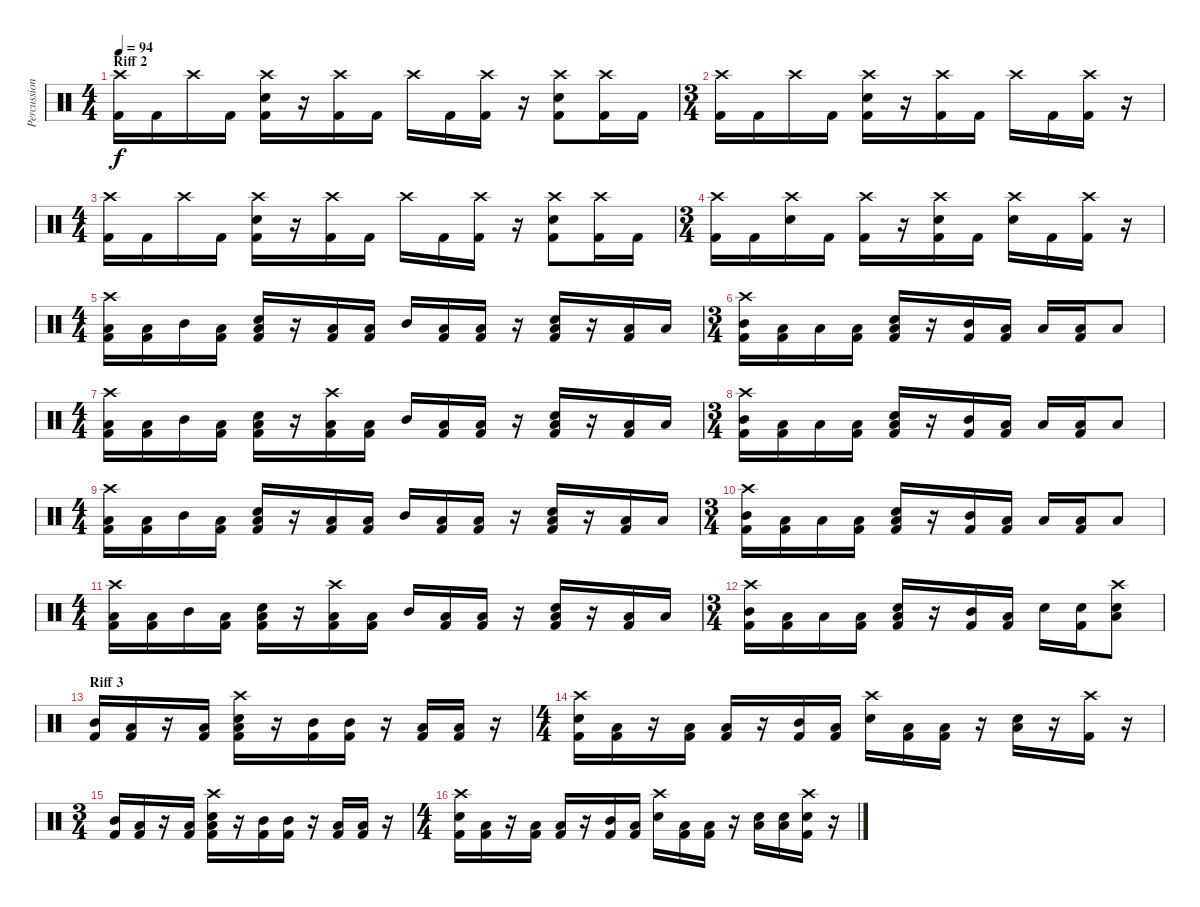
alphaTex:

\track ("Percussion" "Percussion") {instrument percussion}
\staff {score}
\articulation defaults
\ts (4 4)
\section ("" "Riff 2")
\tempo 94
\clef neutral
\ks c
("Crash high (hit)" "Kick (hit) 2").16{dy f} "Kick (hit) 2".16 "Crash high (hit)".16 "Kick (hit) 2".16 ("Crash high (hit)" "Electric Snare (hit)" "Kick (hit) 2").16 r.16 ("Crash high (hit)" "Kick (hit) 2").16 "Kick (hit) 2".16 "Crash high (hit)".16 "Kick (hit) 2".16 ("Crash high (hit)" "Kick (hit) 2").16 r.16 ("Crash high (hit)" "Electric Snare (hit)" "Kick (hit) 2").8 ("Crash high (hit)" "Kick (hit) 2").16 "Kick (hit) 2".16 |
\ts (3 4)
("Crash high (hit)" "Kick (hit) 2").16 "Kick (hit) 2".16 "Crash high (hit)".16 "Kick (hit) 2".16 ("Crash high (hit)" "Electric Snare (hit)" "Kick (hit) 2").16 r.16 ("Crash high (hit)" "Kick (hit) 2").16 "Kick (hit) 2".16 "Crash high (hit)".16 "Kick (hit) 2".16 ("Crash high (hit)" "Kick (hit) 2").16 r.16 |
\ts (4 4)
("Crash high (hit)" "Kick (hit) 2").16 "Kick (hit) 2".16 "Crash high (hit)".16 "Kick (hit) 2".16 ("Crash high (hit)" "Electric Snare (hit)" "Kick (hit) 2").16 r.16 ("Crash high (hit)" "Kick (hit) 2").16 "Kick (hit) 2".16 "Crash high (hit)".16 "Kick (hit) 2".16 ("Crash high (hit)" "Kick (hit) 2").16 r.16 ("Crash high (hit)" "Electric Snare (hit)" "Kick (hit) 2").8 ("Crash high (hit)" "Kick (hit) 2").16 "Kick (hit) 2".16 |
\ts (3 4)
("Crash high (hit)" "Kick (hit) 2").16 "Kick (hit) 2".16 ("Crash high (hit)" "Electric Snare (hit)").16 "Kick (hit) 2".16 ("Crash high (hit)" "Kick (hit) 2").16 r.16 ("Crash high (hit)" "Electric Snare (hit)" "Kick (hit) 2").16 "Kick (hit) 2".16 ("Crash high (hit)" "Electric Snare (hit)").16 "Kick (hit) 2".16 ("Crash high (hit)" "Kick (hit) 2").16 r.16 |
\ts (4 4)
("Crash high (hit)" "Low Tom (hit)" "Kick (hit) 2").16 ("Low Floor Tom (hit)" "Kick (hit) 2").16 "Mid Tom (hit)".16 ("Low Tom (hit)" "Kick (hit) 2").16 ("Electric Snare (hit)" "Low Floor Tom (hit)" "Kick (hit) 2").16 r.16 ("Low Tom (hit)" "Kick (hit) 2").16 ("Low Floor Tom (hit)" "Kick (hit) 2").16 "Mid Tom (hit)".16 ("Low Tom (hit)" "Kick (hit) 2").16 ("Low Floor Tom (hit)" "Kick (hit) 2").16 r.16 ("Electric Snare (hit)" "Low Tom (hit)" "Kick (hit) 2").16 r.16 ("Low Tom (hit)" "Kick (hit) 2").16 "Low Floor Tom (hit)".16 |
\ts (3 4)
("Crash high (hit)" "Mid Tom (hit)" "Kick (hit) 2").16 ("Low Tom (hit)" "Kick (hit) 2").16 "Low Floor Tom (hit)".16 ("Low Tom (hit)" "Kick (hit) 2").16 ("Electric Snare (hit)" "Low Floor Tom (hit)" "Kick (hit) 2").16 r.16 ("Mid Tom (hit)" "Kick (hit) 2").16 ("Low Tom (hit)" "Kick (hit) 2").16 "Low Tom (hit)".16 ("Low Tom (hit)" "Kick (hit) 2").16 "Low Floor Tom (hit)".8 |
\ts (4 4)
("Crash high (hit)" "Low Tom (hit)" "Kick (hit) 2").16 ("Low Floor Tom (hit)" "Kick (hit) 2").16 "Mid Tom (hit)".16 ("Low Tom (hit)" "Kick (hit) 2").16 ("Electric Snare (hit)" "Low Floor Tom (hit)" "Kick (hit) 2").16 r.16 ("Crash high (hit)" "Low Tom (hit)" "Kick (hit) 2").16 ("Low Floor Tom (hit)" "Kick (hit) 2").16 "Mid Tom (hit)".16 ("Low Tom (hit)" "Kick (hit) 2").16 ("Low Floor Tom (hit)" "Kick (hit) 2").16 r.16 ("Electric Snare (hit)" "Low Tom (hit)" "Kick (hit) 2").16 r.16 ("Low Tom (hit)" "Kick (hit) 2").16 "Low Floor Tom (hit)".16 |
\ts (3 4)
("Crash high (hit)" "Mid Tom (hit)" "Kick (hit) 2").16 ("Low Tom (hit)" "Kick (hit) 2").16 "Low Floor Tom (hit)".16 ("Low Tom (hit)" "Kick (hit) 2").16 ("Electric Snare (hit)" "Low Floor Tom (hit)" "Kick (hit) 2").16 r.16 ("Mid Tom (hit)" "Kick (hit) 2").16 ("Low Tom (hit)" "Kick (hit) 2").16 "Low Tom (hit)".16 ("Low Tom (hit)" "Kick (hit) 2").16 "Low Floor Tom (hit)".8 |
\ts (4 4)
("Crash high (hit)" "Low Tom (hit)" "Kick (hit) 2").16 ("Low Floor Tom (hit)" "Kick (hit) 2").16 "Mid Tom (hit)".16 ("Low Tom (hit)" "Kick (hit) 2").16 ("Electric Snare (hit)" "Low Floor Tom (hit)" "Kick (hit) 2").16 r.16 ("Low Tom (hit)" "Kick (hit) 2").16 ("Low Floor Tom (hit)" "Kick (hit) 2").16 "Mid Tom (hit)".16 ("Low Tom (hit)" "Kick (hit) 2").16 ("Low Floor Tom (hit)" "Kick (hit) 2").16 r.16 ("Electric Snare (hit)" "Low Tom (hit)" "Kick (hit) 2").16 r.16 ("Low Tom (hit)" "Kick (hit) 2").16 "Low Floor Tom (hit)".16 |
\ts (3 4)
("Crash high (hit)" "Mid Tom (hit)" "Kick (hit) 2").16 ("Low Tom (hit)" "Kick (hit) 2").16 "Low Floor Tom (hit)".16 ("Low Tom (hit)" "Kick (hit) 2").16 ("Electric Snare (hit)" "Low Floor Tom (hit)" "Kick (hit) 2").16 r.16 ("Mid Tom (hit)" "Kick (hit) 2").16 ("Low Tom (hit)" "Kick (hit) 2").16 "Low Tom (hit)".16 ("Low Tom (hit)" "Kick (hit) 2").16 "Low Floor Tom (hit)".8 |
\ts (4 4)
("Crash high (hit)" "Low Tom (hit)" "Kick (hit) 2").16 ("Low Floor Tom (hit)" "Kick (hit) 2").16 "Mid Tom (hit)".16 ("Low Tom (hit)" "Kick (hit) 2").16 ("Electric Snare (hit)" "Low Floor Tom (hit)" "Kick (hit) 2").16 r.16 ("Crash high (hit)" "Low Tom (hit)" "Kick (hit) 2").16 ("Low Floor Tom (hit)" "Kick (hit) 2").16 "Mid Tom (hit)".16 ("Low Tom (hit)" "Kick (hit) 2").16 ("Low Floor Tom (hit)" "Kick (hit) 2").16 r.16 ("Electric Snare (hit)" "Low Tom (hit)" "Kick (hit) 2").16 r.16 ("Low Tom (hit)" "Kick (hit) 2").16 "Low Floor Tom (hit)".16 |
\ts (3 4)
("Crash high (hit)" "Mid Tom (hit)" "Kick (hit) 2").16 ("Low Tom (hit)" "Kick (hit) 2").16 "Low Floor Tom (hit)".16 ("Low Tom (hit)" "Kick (hit) 2").16 ("Electric Snare (hit)" "Low Floor Tom (hit)" "Kick (hit) 2").16 r.16 ("Mid Tom (hit)" "Kick (hit) 2").16 ("Low Tom (hit)" "Kick (hit) 2").16 "Electric Snare (hit)".16 ("Electric Snare (hit)" "Kick (hit) 2").16 ("Crash high (hit)" "Electric Snare (hit)" "Low Floor Tom (hit)").8 |
\section ("" "Riff 3")
("Mid Tom (hit)" "Kick (hit) 2").16 ("Low Tom (hit)" "Kick (hit) 2").16 r.16 ("Low Tom (hit)" "Kick (hit) 2").16 ("Crash high (hit)" "Electric Snare (hit)" "Low Floor Tom (hit)" "Kick (hit) 2").16 r.16 ("Mid Tom (hit)" "Kick (hit) 2").16 ("Mid Tom (hit)" "Kick (hit) 2").16 r.16 ("Low Tom (hit)" "Kick (hit) 2").16 ("Low Floor Tom (hit)" "Kick (hit) 2").16 r.16 |
\ts (4 4)
("Crash high (hit)" "Electric Snare (hit)" "Kick (hit) 2").16 ("Low Tom (hit)" "Kick (hit) 2").16 r.16 ("Low Tom (hit)" "Kick (hit) 2").16 ("Low Floor Tom (hit)" "Kick (hit) 2").16 r.16 ("Mid Tom (hit)" "Kick (hit) 2").16 ("Low Tom (hit)" "Kick (hit) 2").16 ("Crash high (hit)" "Electric Snare (hit)").16 ("Low Tom (hit)" "Kick (hit) 2").16 ("Low Floor Tom (hit)" "Kick (hit) 2").16 r.16 ("Electric Snare (hit)" "Low Floor Tom (hit)").16 r.16 ("Crash high (hit)" "Kick (hit) 2").16 r.16 |
\ts (3 4)
("Mid Tom (hit)" "Kick (hit) 2").16 ("Low Tom (hit)" "Kick (hit) 2").16 r.16 ("Low Tom (hit)" "Kick (hit) 2").16 ("Crash high (hit)" "Electric Snare (hit)" "Low Floor Tom (hit)" "Kick (hit) 2").16 r.16 ("Mid Tom (hit)" "Kick (hit) 2").16 ("Mid Tom (hit)" "Kick (hit) 2").16 r.16 ("Low Tom (hit)" "Kick (hit) 2").16 ("Low Floor Tom (hit)" "Kick (hit) 2").16 r.16 |
\ts (4 4)
("Crash high (hit)" "Electric Snare (hit)" "Kick (hit) 2").16 ("Low Tom (hit)" "Kick (hit) 2").16 r.16 ("Low Tom (hit)" "Kick (hit) 2").16 ("Low Floor Tom (hit)" "Kick (hit) 2").16 r.16 ("Mid Tom (hit)" "Kick (hit) 2").16 ("Low Tom (hit)" "Kick (hit) 2").16 ("Crash high (hit)" "Electric Snare (hit)").16 ("Low Tom (hit)" "Kick (hit) 2").16 ("Low Floor Tom (hit)" "Kick (hit) 2").16 r.16 ("Electric Snare (hit)" "Low Floor Tom (hit)").16 ("Electric Snare (hit)" "Low Floor Tom (hit)").16 ("Crash high (hit)" "Electric Snare (hit)" "Kick (hit) 2").16 r.16
